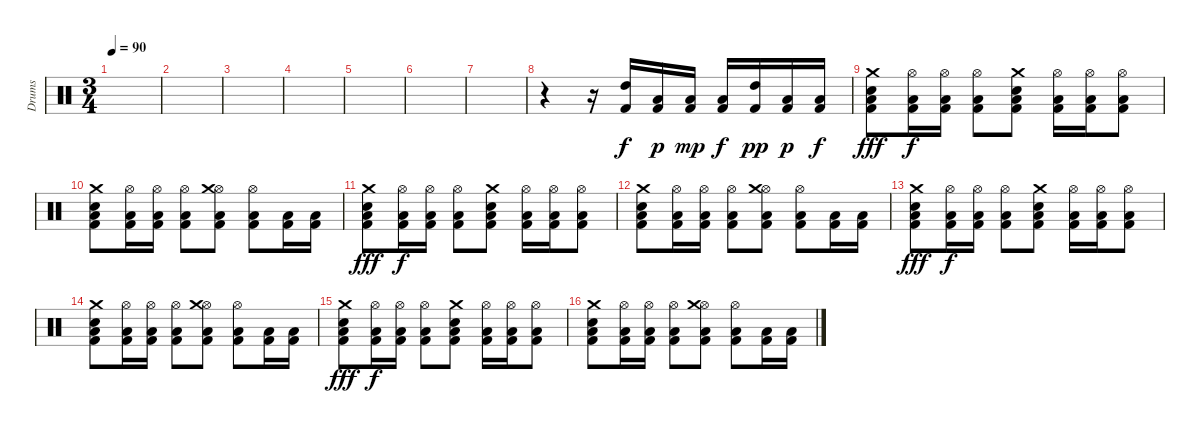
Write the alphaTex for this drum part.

\track ("Drums" "Drums") {instrument percussion}
\staff {score}
\articulation defaults
\ts (3 4)
\tempo 90
\clef neutral
\ks c
|
|
|
|
|
|
|
r.4 r.16 ("Kick (hit) 2" "High Tom (hit)").16 ("Kick (hit) 2" "Low Tom (hit)").16{dy p} ("Kick (hit) 2" "Low Floor Tom (hit)").16{dy mp} ("Kick (hit) 2" "Low Floor Tom (hit)").16{dy f} ("Kick (hit) 2" "High Tom (hit)").16{dy pp} ("Kick (hit) 2" "Low Tom (hit)").16{dy p} ("Kick (hit) 2" "Low Floor Tom (hit)").16{dy f} |
("Kick (hit) 2" "Low Floor Tom (hit)" "Electric Snare (hit)" "Crash medium (hit)").8{dy fff} ("Kick (hit) 2" "Low Floor Tom (hit)" "Hi-Hat (open)").16{dy f} ("Kick (hit) 2" "Low Floor Tom (hit)" "Hi-Hat (open)").16 ("Kick (hit) 2" "Low Floor Tom (hit)" "Hi-Hat (open)").8 ("Kick (hit) 2" "Low Floor Tom (hit)" "Electric Snare (hit)" "Crash medium (hit)").8 ("Kick (hit) 2" "Low Floor Tom (hit)" "Hi-Hat (open)").16 ("Kick (hit) 2" "Low Floor Tom (hit)" "Hi-Hat (open)").16 ("Kick (hit) 2" "Low Floor Tom (hit)" "Hi-Hat (open)").8 |
("Kick (hit) 2" "Low Floor Tom (hit)" "Electric Snare (hit)" "Crash medium (hit)").8 ("Kick (hit) 2" "Low Floor Tom (hit)" "Hi-Hat (open)").16 ("Kick (hit) 2" "Low Floor Tom (hit)" "Hi-Hat (open)").16 ("Kick (hit) 2" "Low Floor Tom (hit)" "Hi-Hat (open)").8 ("Kick (hit) 2" "Low Floor Tom (hit)" "Hi-Hat (open)" "Crash medium (hit)").8 ("Kick (hit) 2" "Low Floor Tom (hit)" "Hi-Hat (open)").8 ("Kick (hit) 2" "Low Floor Tom (hit)").16 ("Kick (hit) 2" "Low Floor Tom (hit)").16 |
("Kick (hit) 2" "Low Floor Tom (hit)" "Electric Snare (hit)" "Crash medium (hit)").8{dy fff} ("Kick (hit) 2" "Low Floor Tom (hit)" "Hi-Hat (open)").16{dy f} ("Kick (hit) 2" "Low Floor Tom (hit)" "Hi-Hat (open)").16 ("Kick (hit) 2" "Low Floor Tom (hit)" "Hi-Hat (open)").8 ("Kick (hit) 2" "Low Floor Tom (hit)" "Electric Snare (hit)" "Crash medium (hit)").8 ("Kick (hit) 2" "Low Floor Tom (hit)" "Hi-Hat (open)").16 ("Kick (hit) 2" "Low Floor Tom (hit)" "Hi-Hat (open)").16 ("Kick (hit) 2" "Low Floor Tom (hit)" "Hi-Hat (open)").8 |
("Kick (hit) 2" "Low Floor Tom (hit)" "Electric Snare (hit)" "Crash medium (hit)").8 ("Kick (hit) 2" "Low Floor Tom (hit)" "Hi-Hat (open)").16 ("Kick (hit) 2" "Low Floor Tom (hit)" "Hi-Hat (open)").16 ("Kick (hit) 2" "Low Floor Tom (hit)" "Hi-Hat (open)").8 ("Kick (hit) 2" "Low Floor Tom (hit)" "Hi-Hat (open)" "Crash medium (hit)").8 ("Kick (hit) 2" "Low Floor Tom (hit)" "Hi-Hat (open)").8 ("Kick (hit) 2" "Low Floor Tom (hit)").16 ("Kick (hit) 2" "Low Floor Tom (hit)").16 |
("Kick (hit) 2" "Low Floor Tom (hit)" "Electric Snare (hit)" "Crash medium (hit)").8{dy fff} ("Kick (hit) 2" "Low Floor Tom (hit)" "Hi-Hat (open)").16{dy f} ("Kick (hit) 2" "Low Floor Tom (hit)" "Hi-Hat (open)").16 ("Kick (hit) 2" "Low Floor Tom (hit)" "Hi-Hat (open)").8 ("Kick (hit) 2" "Low Floor Tom (hit)" "Electric Snare (hit)" "Crash medium (hit)").8 ("Kick (hit) 2" "Low Floor Tom (hit)" "Hi-Hat (open)").16 ("Kick (hit) 2" "Low Floor Tom (hit)" "Hi-Hat (open)").16 ("Kick (hit) 2" "Low Floor Tom (hit)" "Hi-Hat (open)").8 |
("Kick (hit) 2" "Low Floor Tom (hit)" "Electric Snare (hit)" "Crash medium (hit)").8 ("Kick (hit) 2" "Low Floor Tom (hit)" "Hi-Hat (open)").16 ("Kick (hit) 2" "Low Floor Tom (hit)" "Hi-Hat (open)").16 ("Kick (hit) 2" "Low Floor Tom (hit)" "Hi-Hat (open)").8 ("Kick (hit) 2" "Low Floor Tom (hit)" "Hi-Hat (open)" "Crash medium (hit)").8 ("Kick (hit) 2" "Low Floor Tom (hit)" "Hi-Hat (open)").8 ("Kick (hit) 2" "Low Floor Tom (hit)").16 ("Kick (hit) 2" "Low Floor Tom (hit)").16 |
("Kick (hit) 2" "Low Floor Tom (hit)" "Electric Snare (hit)" "Crash medium (hit)").8{dy fff} ("Kick (hit) 2" "Low Floor Tom (hit)" "Hi-Hat (open)").16{dy f} ("Kick (hit) 2" "Low Floor Tom (hit)" "Hi-Hat (open)").16 ("Kick (hit) 2" "Low Floor Tom (hit)" "Hi-Hat (open)").8 ("Kick (hit) 2" "Low Floor Tom (hit)" "Electric Snare (hit)" "Crash medium (hit)").8 ("Kick (hit) 2" "Low Floor Tom (hit)" "Hi-Hat (open)").16 ("Kick (hit) 2" "Low Floor Tom (hit)" "Hi-Hat (open)").16 ("Kick (hit) 2" "Low Floor Tom (hit)" "Hi-Hat (open)").8 |
("Kick (hit) 2" "Low Floor Tom (hit)" "Electric Snare (hit)" "Crash medium (hit)").8 ("Kick (hit) 2" "Low Floor Tom (hit)" "Hi-Hat (open)").16 ("Kick (hit) 2" "Low Floor Tom (hit)" "Hi-Hat (open)").16 ("Kick (hit) 2" "Low Floor Tom (hit)" "Hi-Hat (open)").8 ("Kick (hit) 2" "Low Floor Tom (hit)" "Hi-Hat (open)" "Crash medium (hit)").8 ("Kick (hit) 2" "Low Floor Tom (hit)" "Hi-Hat (open)").8 ("Kick (hit) 2" "Low Floor Tom (hit)").16 ("Kick (hit) 2" "Low Floor Tom (hit)").16
